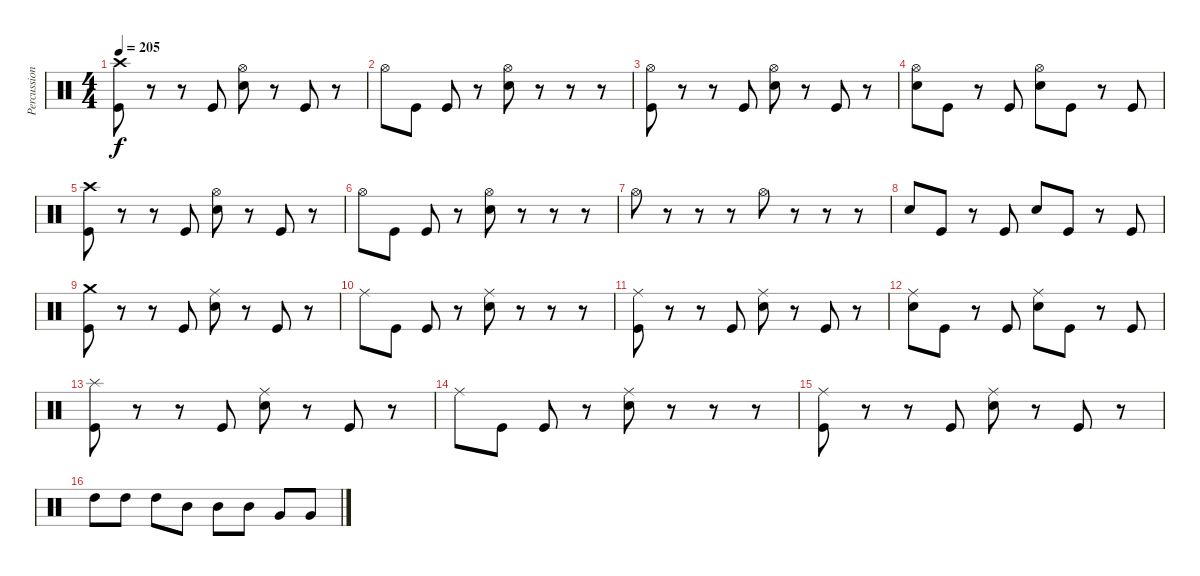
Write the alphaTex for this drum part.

\track ("Percussion" "Percussion") {instrument percussion}
\staff {score}
\articulation defaults
\ts (4 4)
\tempo 205
\clef neutral
\ks c
("Kick (hit)" "Crash high (hit)").8{dy f} r.8 r.8 "Kick (hit)".8 ("Snare (hit) 2" "Hi-Hat (open)").8 r.8 "Kick (hit)".8 r.8 |
"Hi-Hat (open)".8 "Kick (hit)".8 "Kick (hit)".8 r.8 ("Snare (hit) 2" "Hi-Hat (open)").8 r.8 r.8 r.8 |
("Kick (hit)" "Hi-Hat (open)").8 r.8 r.8 "Kick (hit)".8 ("Snare (hit) 2" "Hi-Hat (open)").8 r.8 "Kick (hit)".8 r.8 |
("Snare (hit) 2" "Hi-Hat (open)").8 "Kick (hit)".8 r.8 "Kick (hit)".8 ("Snare (hit) 2" "Hi-Hat (open)").8 "Kick (hit)".8 r.8 "Kick (hit)".8 |
("Kick (hit)" "Crash high (hit)").8 r.8 r.8 "Kick (hit)".8 ("Snare (hit) 2" "Hi-Hat (open)").8 r.8 "Kick (hit)".8 r.8 |
"Hi-Hat (open)".8 "Kick (hit)".8 "Kick (hit)".8 r.8 ("Snare (hit) 2" "Hi-Hat (open)").8 r.8 r.8 r.8 |
"Hi-Hat (open)".8 r.8 r.8 r.8 "Hi-Hat (open)".8 r.8 r.8 r.8 |
"Snare (hit) 2".8 "Kick (hit)".8 r.8 "Kick (hit)".8 "Snare (hit) 2".8 "Kick (hit)".8 r.8 "Kick (hit)".8 |
("Kick (hit)" "Crash medium (hit)").8 r.8 r.8 "Kick (hit)".8 ("Snare (hit) 2" "Ride (middle)").8 r.8 "Kick (hit)".8 r.8 |
"Ride (middle)".8 "Kick (hit)".8 "Kick (hit)".8 r.8 ("Snare (hit) 2" "Ride (middle)").8 r.8 r.8 r.8 |
("Kick (hit)" "Ride (middle)").8 r.8 r.8 "Kick (hit)".8 ("Snare (hit) 2" "Ride (middle)").8 r.8 "Kick (hit)".8 r.8 |
("Snare (hit) 2" "Ride (middle)").8 "Kick (hit)".8 r.8 "Kick (hit)".8 ("Snare (hit) 2" "Ride (middle)").8 "Kick (hit)".8 r.8 "Kick (hit)".8 |
("Kick (hit)" "Splash (hit)").8 r.8 r.8 "Kick (hit)".8 ("Snare (hit) 2" "Ride (middle)").8 r.8 "Kick (hit)".8 r.8 |
"Ride (middle)".8 "Kick (hit)".8 "Kick (hit)".8 r.8 ("Snare (hit) 2" "Ride (middle)").8 r.8 r.8 r.8 |
("Kick (hit)" "Ride (middle)").8 r.8 r.8 "Kick (hit)".8 ("Snare (hit) 2" "Ride (middle)").8 r.8 "Kick (hit)".8 r.8 |
"High Tom (hit)".8 "High Tom (hit)".8 "High Tom (hit)".8 "Mid Tom (hit)".8 "Mid Tom (hit)".8 "Mid Tom (hit)".8 "Very Low Tom (hit)".8 "Very Low Tom (hit)".8
